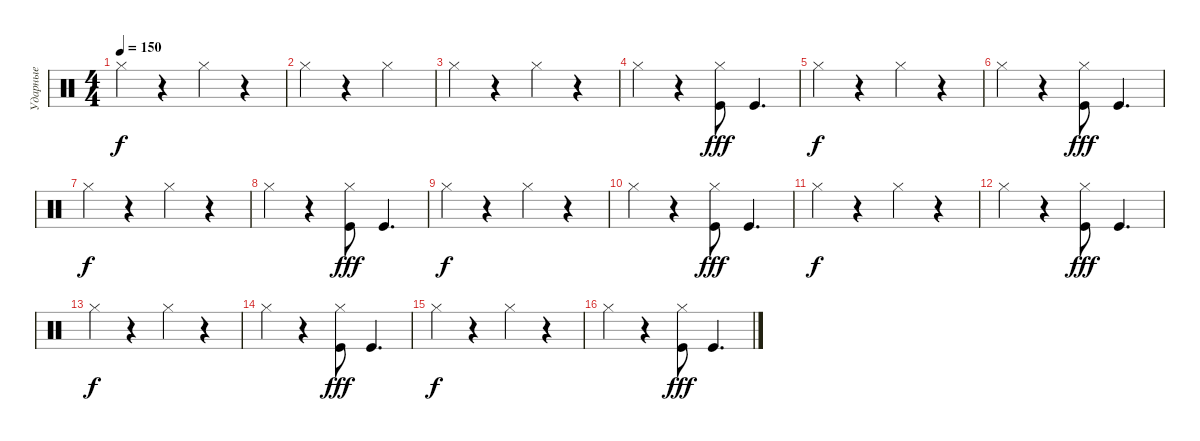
\track ("Ударные" "Ударные") {instrument percussion}
\staff {score}
\articulation defaults
\ts (4 4)
\tempo 150
\clef neutral
\ks c "Hi-Hat (closed)".4{dy f}
r.4 "Hi-Hat (closed)".4 r.4 |
"Hi-Hat (closed)".4 r.4 "Hi-Hat (closed)".2 |
"Hi-Hat (closed)".4 r.4 "Hi-Hat (closed)".4 r.4 |
"Hi-Hat (closed)".4 r.4 ("Hi-Hat (closed)" "Kick (hit)").8{dy fff} "Kick (hit)".4{d} |
"Hi-Hat (closed)".4{dy f} r.4 "Hi-Hat (closed)".4 r.4 |
"Hi-Hat (closed)".4 r.4 ("Hi-Hat (closed)" "Kick (hit)").8{dy fff} "Kick (hit)".4{d} |
"Hi-Hat (closed)".4{dy f} r.4 "Hi-Hat (closed)".4 r.4 |
"Hi-Hat (closed)".4 r.4 ("Hi-Hat (closed)" "Kick (hit)").8{dy fff} "Kick (hit)".4{d} |
"Hi-Hat (closed)".4{dy f} r.4 "Hi-Hat (closed)".4 r.4 |
"Hi-Hat (closed)".4 r.4 ("Hi-Hat (closed)" "Kick (hit)").8{dy fff} "Kick (hit)".4{d} |
"Hi-Hat (closed)".4{dy f} r.4 "Hi-Hat (closed)".4 r.4 |
"Hi-Hat (closed)".4 r.4 ("Hi-Hat (closed)" "Kick (hit)").8{dy fff} "Kick (hit)".4{d} |
"Hi-Hat (closed)".4{dy f} r.4 "Hi-Hat (closed)".4 r.4 |
"Hi-Hat (closed)".4 r.4 ("Hi-Hat (closed)" "Kick (hit)").8{dy fff} "Kick (hit)".4{d} |
"Hi-Hat (closed)".4{dy f} r.4 "Hi-Hat (closed)".4 r.4 |
"Hi-Hat (closed)".4 r.4 ("Hi-Hat (closed)" "Kick (hit)").8{dy fff} "Kick (hit)".4{d}
